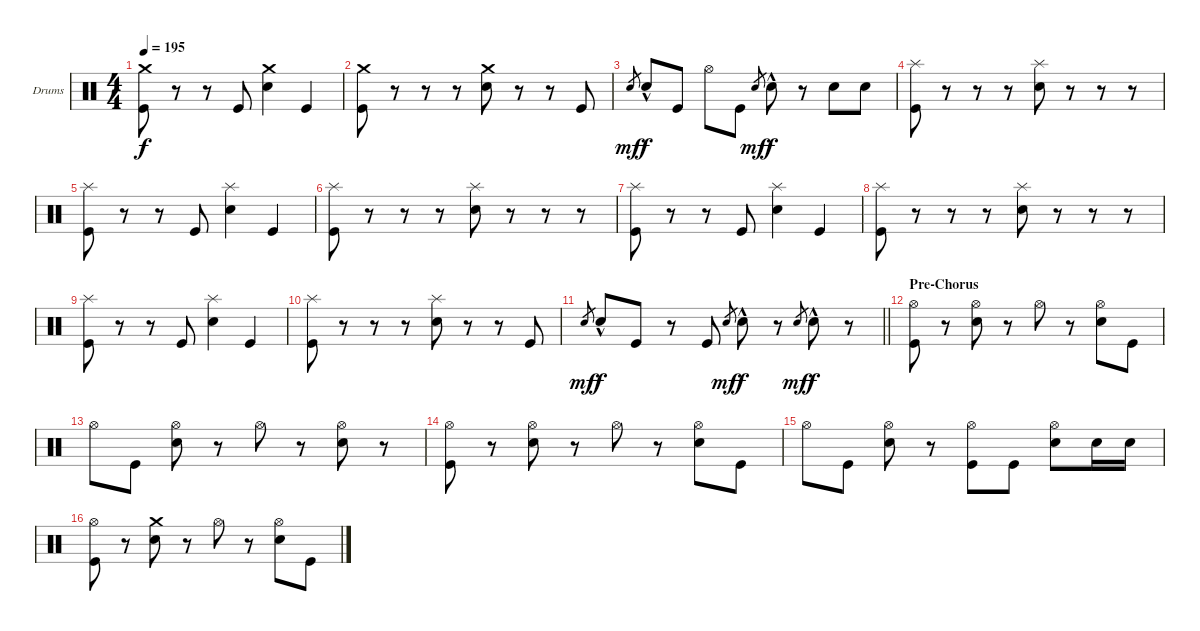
\bracketExtendMode groupsimilarinstruments
\firstSystemTrackNameOrientation horizontal
\otherSystemsTrackNameOrientation horizontal
\track ("Drumkit" "Drums") {instrument percussion}
\staff {score}
\articulation defaults
\ts (4 4)
\tempo 195
\clef neutral
\ks c
("Crash medium (hit)" "Kick (hit)").8{dy f} r.8 r.8 "Kick (hit)".8 ("Crash medium (hit)" "Snare (hit) 2").4 "Kick (hit)".4 |
("Crash medium (hit)" "Kick (hit)").8 r.8 r.8 r.8 ("Crash medium (hit)" "Snare (hit) 2").8 r.8 r.8 "Kick (hit)".8 |
"Snare (hit) 2".8{gr dy mf} "Snare (hit) 2"{hac}.8{dy f} "Kick (hit)".8 "Hi-Hat (open)".8 "Kick (hit)".8 "Snare (hit) 2".8{gr dy mf} "Snare (hit) 2"{hac}.8{dy f} r.8 "Snare (hit) 2".8 "Snare (hit) 2".8 |
("Splash (hit)" "Kick (hit)").8 r.8 r.8 r.8 ("Splash (hit)" "Snare (hit) 2").8 r.8 r.8 r.8 |
("Splash (hit)" "Kick (hit)").8 r.8 r.8 "Kick (hit)".8 ("Splash (hit)" "Snare (hit) 2").4 "Kick (hit)".4 |
("Splash (hit)" "Kick (hit)").8 r.8 r.8 r.8 ("Splash (hit)" "Snare (hit) 2").8 r.8 r.8 r.8 |
("Splash (hit)" "Kick (hit)").8 r.8 r.8 "Kick (hit)".8 ("Splash (hit)" "Snare (hit) 2").4 "Kick (hit)".4 |
("Splash (hit)" "Kick (hit)").8 r.8 r.8 r.8 ("Splash (hit)" "Snare (hit) 2").8 r.8 r.8 r.8 |
("Splash (hit)" "Kick (hit)").8 r.8 r.8 "Kick (hit)".8 ("Splash (hit)" "Snare (hit) 2").4 "Kick (hit)".4 |
("Splash (hit)" "Kick (hit)").8 r.8 r.8 r.8 ("Splash (hit)" "Snare (hit) 2").8 r.8 r.8 "Kick (hit)".8 |
\barLineRight lightlight "Snare (hit) 2".8{gr dy mf} "Snare (hit) 2"{hac}.8{dy f} "Kick (hit)".8
r.8 "Kick (hit)".8 "Snare (hit) 2".8{gr dy mf} "Snare (hit) 2"{hac}.8{dy f} r.8 "Snare (hit) 2".8{gr dy mf} "Snare (hit) 2"{hac}.8{dy f} r.8 |
\section ("" "Pre-Chorus")
("Hi-Hat (open)" "Kick (hit)").8 r.8 ("Hi-Hat (open)" "Snare (hit) 2").8 r.8 "Hi-Hat (open)".8 r.8 ("Hi-Hat (open)" "Snare (hit) 2").8 "Kick (hit)".8 |
"Hi-Hat (open)".8 "Kick (hit)".8 ("Hi-Hat (open)" "Snare (hit) 2").8 r.8 "Hi-Hat (open)".8 r.8 ("Hi-Hat (open)" "Snare (hit) 2").8 r.8 |
("Hi-Hat (open)" "Kick (hit)").8 r.8 ("Hi-Hat (open)" "Snare (hit) 2").8 r.8 "Hi-Hat (open)".8 r.8 ("Hi-Hat (open)" "Snare (hit) 2").8 "Kick (hit)".8 |
"Hi-Hat (open)".8 "Kick (hit)".8 ("Hi-Hat (open)" "Snare (hit) 2").8 r.8 ("Hi-Hat (open)" "Kick (hit)").8 "Kick (hit)".8 ("Hi-Hat (open)" "Snare (hit) 2").8 "Snare (hit) 2".16 "Snare (hit) 2".16 |
("Hi-Hat (open)" "Kick (hit)").8 r.8 ("Crash medium (hit)" "Snare (hit) 2").8 r.8 "Hi-Hat (open)".8 r.8 ("Hi-Hat (open)" "Snare (hit) 2").8 "Kick (hit)".8
